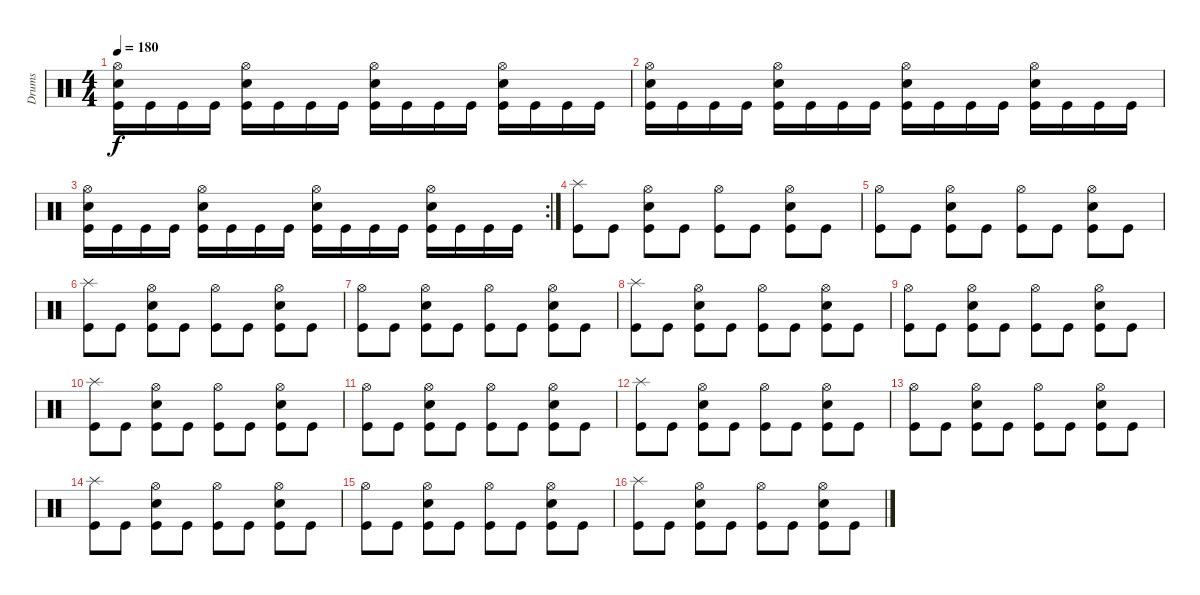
\track ("Drums" "Drums") {instrument percussion}
\staff {score}
\articulation defaults
\ts (4 4)
\tempo 180
\clef neutral
\ks c
("Kick (hit)" "Electric Snare (hit)" "Hi-Hat (open)").16{dy f} "Kick (hit)".16 "Kick (hit)".16 "Kick (hit)".16 ("Kick (hit)" "Electric Snare (hit)" "Hi-Hat (open)").16 "Kick (hit)".16 "Kick (hit)".16 "Kick (hit)".16 ("Kick (hit)" "Electric Snare (hit)" "Hi-Hat (open)").16 "Kick (hit)".16 "Kick (hit)".16 "Kick (hit)".16 ("Kick (hit)" "Electric Snare (hit)" "Hi-Hat (open)").16 "Kick (hit)".16 "Kick (hit)".16 "Kick (hit)".16 |
("Kick (hit)" "Electric Snare (hit)" "Hi-Hat (open)").16 "Kick (hit)".16 "Kick (hit)".16 "Kick (hit)".16 ("Kick (hit)" "Electric Snare (hit)" "Hi-Hat (open)").16 "Kick (hit)".16 "Kick (hit)".16 "Kick (hit)".16 ("Kick (hit)" "Electric Snare (hit)" "Hi-Hat (open)").16 "Kick (hit)".16 "Kick (hit)".16 "Kick (hit)".16 ("Kick (hit)" "Electric Snare (hit)" "Hi-Hat (open)").16 "Kick (hit)".16 "Kick (hit)".16 "Kick (hit)".16 |
\rc 2
("Kick (hit)" "Electric Snare (hit)" "Hi-Hat (open)").16 "Kick (hit)".16 "Kick (hit)".16 "Kick (hit)".16 ("Kick (hit)" "Electric Snare (hit)" "Hi-Hat (open)").16 "Kick (hit)".16 "Kick (hit)".16 "Kick (hit)".16 ("Kick (hit)" "Electric Snare (hit)" "Hi-Hat (open)").16 "Kick (hit)".16 "Kick (hit)".16 "Kick (hit)".16 ("Kick (hit)" "Electric Snare (hit)" "Hi-Hat (open)").16 "Kick (hit)".16 "Kick (hit)".16 "Kick (hit)".16 |
("Kick (hit)" "Splash (hit)").8 "Kick (hit)".8 ("Kick (hit)" "Electric Snare (hit)" "Hi-Hat (open)").8 "Kick (hit)".8 ("Kick (hit)" "Hi-Hat (open)").8 "Kick (hit)".8 ("Kick (hit)" "Electric Snare (hit)" "Hi-Hat (open)").8 "Kick (hit)".8 |
("Kick (hit)" "Hi-Hat (open)").8 "Kick (hit)".8 ("Kick (hit)" "Electric Snare (hit)" "Hi-Hat (open)").8 "Kick (hit)".8 ("Kick (hit)" "Hi-Hat (open)").8 "Kick (hit)".8 ("Kick (hit)" "Electric Snare (hit)" "Hi-Hat (open)").8 "Kick (hit)".8 |
("Kick (hit)" "Splash (hit)").8 "Kick (hit)".8 ("Kick (hit)" "Electric Snare (hit)" "Hi-Hat (open)").8 "Kick (hit)".8 ("Kick (hit)" "Hi-Hat (open)").8 "Kick (hit)".8 ("Kick (hit)" "Electric Snare (hit)" "Hi-Hat (open)").8 "Kick (hit)".8 |
("Kick (hit)" "Hi-Hat (open)").8 "Kick (hit)".8 ("Kick (hit)" "Electric Snare (hit)" "Hi-Hat (open)").8 "Kick (hit)".8 ("Kick (hit)" "Hi-Hat (open)").8 "Kick (hit)".8 ("Kick (hit)" "Electric Snare (hit)" "Hi-Hat (open)").8 "Kick (hit)".8 |
("Kick (hit)" "Splash (hit)").8 "Kick (hit)".8 ("Kick (hit)" "Electric Snare (hit)" "Hi-Hat (open)").8 "Kick (hit)".8 ("Kick (hit)" "Hi-Hat (open)").8 "Kick (hit)".8 ("Kick (hit)" "Electric Snare (hit)" "Hi-Hat (open)").8 "Kick (hit)".8 |
("Kick (hit)" "Hi-Hat (open)").8 "Kick (hit)".8 ("Kick (hit)" "Electric Snare (hit)" "Hi-Hat (open)").8 "Kick (hit)".8 ("Kick (hit)" "Hi-Hat (open)").8 "Kick (hit)".8 ("Kick (hit)" "Electric Snare (hit)" "Hi-Hat (open)").8 "Kick (hit)".8 |
("Kick (hit)" "Splash (hit)").8 "Kick (hit)".8 ("Kick (hit)" "Electric Snare (hit)" "Hi-Hat (open)").8 "Kick (hit)".8 ("Kick (hit)" "Hi-Hat (open)").8 "Kick (hit)".8 ("Kick (hit)" "Electric Snare (hit)" "Hi-Hat (open)").8 "Kick (hit)".8 |
("Kick (hit)" "Hi-Hat (open)").8 "Kick (hit)".8 ("Kick (hit)" "Electric Snare (hit)" "Hi-Hat (open)").8 "Kick (hit)".8 ("Kick (hit)" "Hi-Hat (open)").8 "Kick (hit)".8 ("Kick (hit)" "Electric Snare (hit)" "Hi-Hat (open)").8 "Kick (hit)".8 |
("Kick (hit)" "Splash (hit)").8 "Kick (hit)".8 ("Kick (hit)" "Electric Snare (hit)" "Hi-Hat (open)").8 "Kick (hit)".8 ("Kick (hit)" "Hi-Hat (open)").8 "Kick (hit)".8 ("Kick (hit)" "Electric Snare (hit)" "Hi-Hat (open)").8 "Kick (hit)".8 |
("Kick (hit)" "Hi-Hat (open)").8 "Kick (hit)".8 ("Kick (hit)" "Electric Snare (hit)" "Hi-Hat (open)").8 "Kick (hit)".8 ("Kick (hit)" "Hi-Hat (open)").8 "Kick (hit)".8 ("Kick (hit)" "Electric Snare (hit)" "Hi-Hat (open)").8 "Kick (hit)".8 |
("Kick (hit)" "Splash (hit)").8 "Kick (hit)".8 ("Kick (hit)" "Electric Snare (hit)" "Hi-Hat (open)").8 "Kick (hit)".8 ("Kick (hit)" "Hi-Hat (open)").8 "Kick (hit)".8 ("Kick (hit)" "Electric Snare (hit)" "Hi-Hat (open)").8 "Kick (hit)".8 |
("Kick (hit)" "Hi-Hat (open)").8 "Kick (hit)".8 ("Kick (hit)" "Electric Snare (hit)" "Hi-Hat (open)").8 "Kick (hit)".8 ("Kick (hit)" "Hi-Hat (open)").8 "Kick (hit)".8 ("Kick (hit)" "Electric Snare (hit)" "Hi-Hat (open)").8 "Kick (hit)".8 |
("Kick (hit)" "Splash (hit)").8 "Kick (hit)".8 ("Kick (hit)" "Electric Snare (hit)" "Hi-Hat (open)").8 "Kick (hit)".8 ("Kick (hit)" "Hi-Hat (open)").8 "Kick (hit)".8 ("Kick (hit)" "Electric Snare (hit)" "Hi-Hat (open)").8 "Kick (hit)".8
